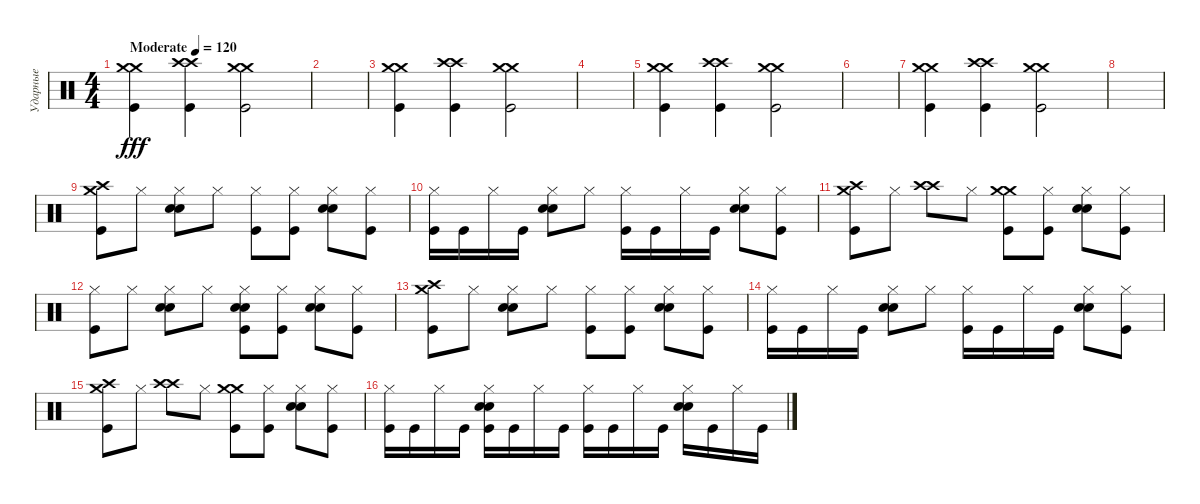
\track ("Ударные" "Ударные") {instrument percussion}
\staff {score}
\articulation defaults
\ts (4 4)
\tempo (120 "Moderate")
\clef neutral
\ks c
("Crash medium (hit)" "Crash medium (hit)" "Kick (hit)").4{dy fff} ("Crash high (hit)" "Crash high (hit)" "Kick (hit)").4 ("Crash medium (hit)" "Crash medium (hit)" "Kick (hit)").2 |
|
("Crash medium (hit)" "Crash medium (hit)" "Kick (hit)").4 ("Crash high (hit)" "Crash high (hit)" "Kick (hit)").4 ("Crash medium (hit)" "Crash medium (hit)" "Kick (hit)").2 |
|
("Crash medium (hit)" "Crash medium (hit)" "Kick (hit)").4 ("Crash high (hit)" "Crash high (hit)" "Kick (hit)").4 ("Crash medium (hit)" "Crash medium (hit)" "Kick (hit)").2 |
|
("Crash medium (hit)" "Crash medium (hit)" "Kick (hit)").4 ("Crash high (hit)" "Crash high (hit)" "Kick (hit)").4 ("Crash medium (hit)" "Crash medium (hit)" "Kick (hit)").2 |
|
("Crash high (hit)" "Crash medium (hit)" "Kick (hit)").8 "Hi-Hat (closed)".8 ("Hi-Hat (closed)" "Electric Snare (hit)" "Snare (hit) 2").8 "Hi-Hat (closed)".8 ("Hi-Hat (closed)" "Kick (hit)").8 ("Hi-Hat (closed)" "Kick (hit)").8 ("Hi-Hat (closed)" "Electric Snare (hit)" "Snare (hit) 2").8 ("Hi-Hat (closed)" "Kick (hit)").8 |
("Hi-Hat (closed)" "Kick (hit)").16 "Kick (hit)".16 "Hi-Hat (closed)".16 "Kick (hit)".16 ("Hi-Hat (closed)" "Electric Snare (hit)" "Snare (hit) 2").8 "Hi-Hat (closed)".8 ("Hi-Hat (closed)" "Kick (hit)").16 "Kick (hit)".16 "Hi-Hat (closed)".16 "Kick (hit)".16 ("Hi-Hat (closed)" "Electric Snare (hit)" "Snare (hit) 2").8 ("Hi-Hat (closed)" "Kick (hit)").8 |
("Crash high (hit)" "Crash medium (hit)" "Kick (hit)").8 "Hi-Hat (closed)".8 ("Crash high (hit)" "Crash high (hit)").8 "Hi-Hat (closed)".8 ("Crash medium (hit)" "Crash medium (hit)" "Kick (hit)").8 ("Hi-Hat (closed)" "Kick (hit)").8 ("Hi-Hat (closed)" "Electric Snare (hit)" "Snare (hit) 2").8 ("Hi-Hat (closed)" "Kick (hit)").8 |
("Hi-Hat (closed)" "Kick (hit)").8 "Hi-Hat (closed)".8 ("Hi-Hat (closed)" "Electric Snare (hit)" "Snare (hit) 2").8 "Hi-Hat (closed)".8 ("Hi-Hat (closed)" "Snare (hit) 2" "Electric Snare (hit)" "Kick (hit)").8 ("Hi-Hat (closed)" "Kick (hit)").8 ("Hi-Hat (closed)" "Electric Snare (hit)" "Snare (hit) 2").8 ("Hi-Hat (closed)" "Kick (hit)").8 |
("Crash high (hit)" "Crash medium (hit)" "Kick (hit)").8 "Hi-Hat (closed)".8 ("Hi-Hat (closed)" "Electric Snare (hit)" "Snare (hit) 2").8 "Hi-Hat (closed)".8 ("Hi-Hat (closed)" "Kick (hit)").8 ("Hi-Hat (closed)" "Kick (hit)").8 ("Hi-Hat (closed)" "Electric Snare (hit)" "Snare (hit) 2").8 ("Hi-Hat (closed)" "Kick (hit)").8 |
("Hi-Hat (closed)" "Kick (hit)").16 "Kick (hit)".16 "Hi-Hat (closed)".16 "Kick (hit)".16 ("Hi-Hat (closed)" "Electric Snare (hit)" "Snare (hit) 2").8 "Hi-Hat (closed)".8 ("Hi-Hat (closed)" "Kick (hit)").16 "Kick (hit)".16 "Hi-Hat (closed)".16 "Kick (hit)".16 ("Hi-Hat (closed)" "Electric Snare (hit)" "Snare (hit) 2").8 ("Hi-Hat (closed)" "Kick (hit)").8 |
("Crash high (hit)" "Crash medium (hit)" "Kick (hit)").8 "Hi-Hat (closed)".8 ("Crash high (hit)" "Crash high (hit)").8 "Hi-Hat (closed)".8 ("Crash medium (hit)" "Crash medium (hit)" "Kick (hit)").8 ("Hi-Hat (closed)" "Kick (hit)").8 ("Hi-Hat (closed)" "Electric Snare (hit)" "Snare (hit) 2").8 ("Hi-Hat (closed)" "Kick (hit)").8 |
("Hi-Hat (closed)" "Kick (hit)").16 "Kick (hit)".16 "Hi-Hat (closed)".16 "Kick (hit)".16 ("Hi-Hat (closed)" "Electric Snare (hit)" "Snare (hit) 2" "Kick (hit)").16 "Kick (hit)".16 "Hi-Hat (closed)".16 "Kick (hit)".16 ("Hi-Hat (closed)" "Kick (hit)").16 "Kick (hit)".16 "Hi-Hat (closed)".16 "Kick (hit)".16 ("Hi-Hat (closed)" "Snare (hit) 2" "Electric Snare (hit)").16 "Kick (hit)".16 "Hi-Hat (closed)".16 "Kick (hit)".16
